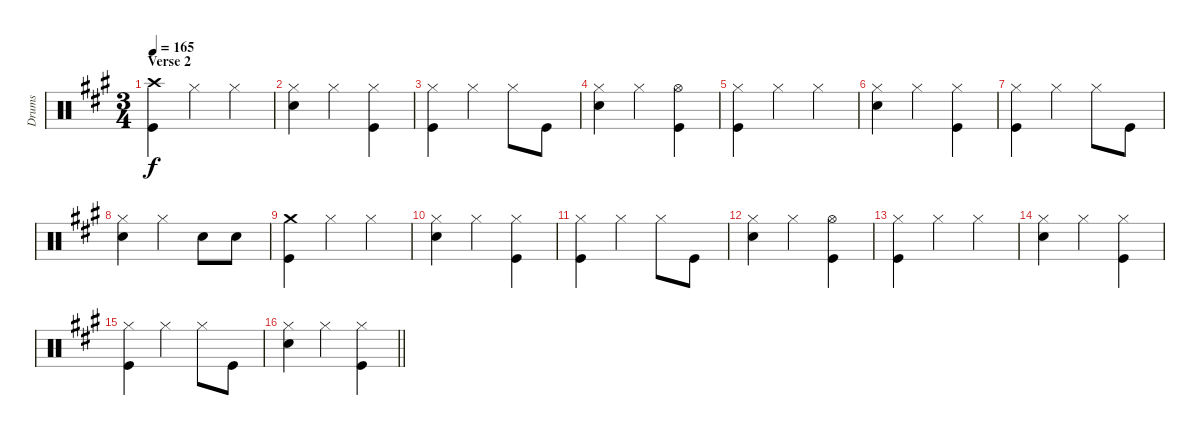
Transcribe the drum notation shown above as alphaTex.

\track ("Drums" "Drums") {instrument percussion}
\staff {score}
\articulation defaults
\ts (3 4)
\section ("" "Verse 2")
\tempo 165
\clef neutral
\ks a
("Crash high (hit)" "Kick (hit)").4{dy f} "Hi-Hat (closed)".4 "Hi-Hat (closed)".4 |
("Hi-Hat (closed)" "Snare (hit) 2").4 "Hi-Hat (closed)".4 ("Hi-Hat (closed)" "Kick (hit)").4 |
("Hi-Hat (closed)" "Kick (hit)").4 "Hi-Hat (closed)".4 "Hi-Hat (closed)".8 "Kick (hit)".8 |
("Hi-Hat (closed)" "Snare (hit) 2").4 "Hi-Hat (closed)".4 ("Hi-Hat (open)" "Kick (hit)").4 |
("Hi-Hat (closed)" "Kick (hit)").4 "Hi-Hat (closed)".4 "Hi-Hat (closed)".4 |
("Hi-Hat (closed)" "Snare (hit) 2").4 "Hi-Hat (closed)".4 ("Hi-Hat (closed)" "Kick (hit)").4 |
("Hi-Hat (closed)" "Kick (hit)").4 "Hi-Hat (closed)".4 "Hi-Hat (closed)".8 "Kick (hit)".8 |
("Hi-Hat (closed)" "Snare (hit) 2").4 "Hi-Hat (closed)".4 "Snare (hit) 2".8 "Snare (hit) 2".8 |
("Crash medium (hit)" "Kick (hit)").4 "Hi-Hat (closed)".4 "Hi-Hat (closed)".4 |
("Hi-Hat (closed)" "Snare (hit) 2").4 "Hi-Hat (closed)".4 ("Hi-Hat (closed)" "Kick (hit)").4 |
("Hi-Hat (closed)" "Kick (hit)").4 "Hi-Hat (closed)".4 "Hi-Hat (closed)".8 "Kick (hit)".8 |
("Hi-Hat (closed)" "Snare (hit) 2").4 "Hi-Hat (closed)".4 ("Hi-Hat (open)" "Kick (hit)").4 |
("Hi-Hat (closed)" "Kick (hit)").4 "Hi-Hat (closed)".4 "Hi-Hat (closed)".4 |
("Hi-Hat (closed)" "Snare (hit) 2").4 "Hi-Hat (closed)".4 ("Hi-Hat (closed)" "Kick (hit)").4 |
("Hi-Hat (closed)" "Kick (hit)").4 "Hi-Hat (closed)".4 "Hi-Hat (closed)".8 "Kick (hit)".8 |
\barLineRight lightlight
("Hi-Hat (closed)" "Snare (hit) 2").4 "Hi-Hat (closed)".4 ("Hi-Hat (closed)" "Kick (hit)").4
